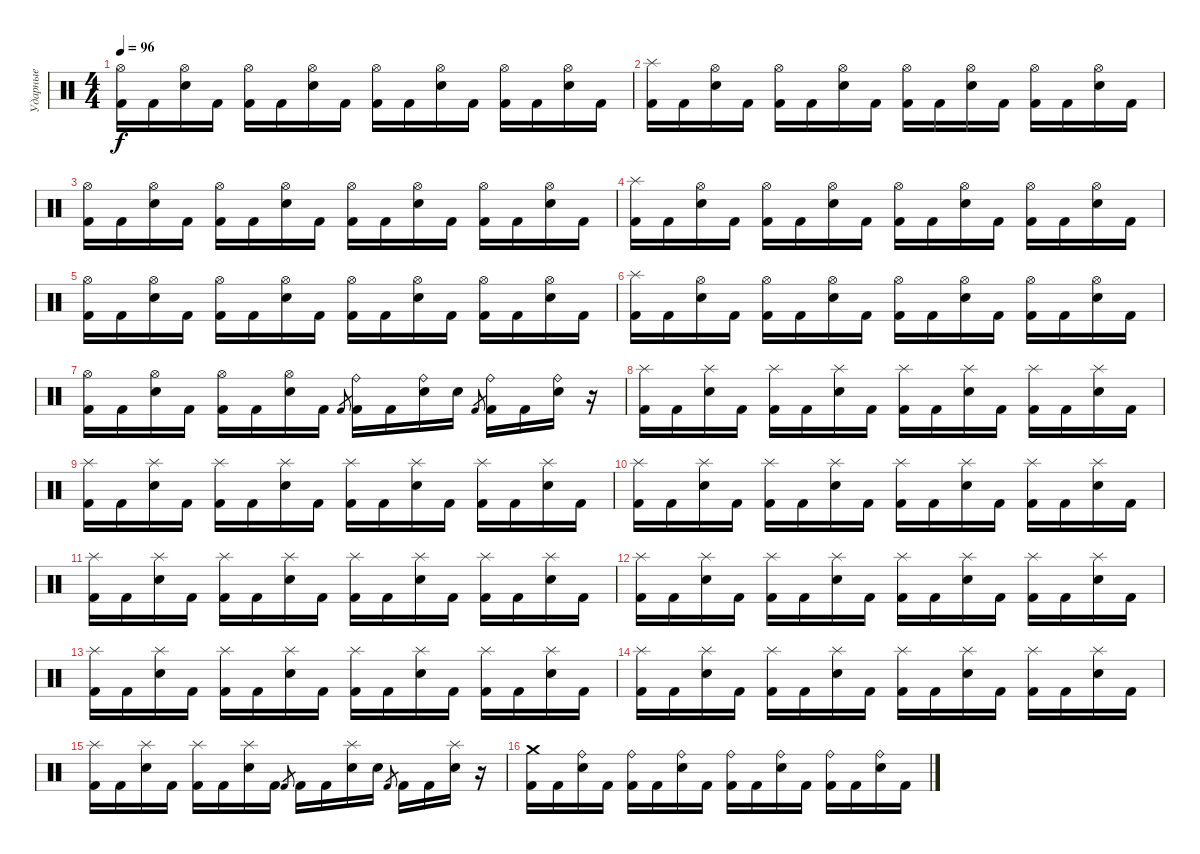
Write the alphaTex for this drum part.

\track ("Ударные" "Ударные") {instrument percussion}
\staff {score}
\articulation defaults
\ts (4 4)
\tempo 96
\clef neutral
\ks c
("Hi-Hat (open)" "Kick (hit) 2").16{dy f} "Kick (hit) 2".16 ("Hi-Hat (open)" "Electric Snare (hit)").16 "Kick (hit) 2".16 ("Hi-Hat (open)" "Kick (hit) 2").16 "Kick (hit) 2".16 ("Hi-Hat (open)" "Electric Snare (hit)").16 "Kick (hit) 2".16 ("Hi-Hat (open)" "Kick (hit) 2").16 "Kick (hit) 2".16 ("Hi-Hat (open)" "Electric Snare (hit)").16 "Kick (hit) 2".16 ("Hi-Hat (open)" "Kick (hit) 2").16 "Kick (hit) 2".16 ("Hi-Hat (open)" "Electric Snare (hit)").16 "Kick (hit) 2".16 |
("Splash (hit)" "Kick (hit) 2").16 "Kick (hit) 2".16 ("Hi-Hat (open)" "Electric Snare (hit)").16 "Kick (hit) 2".16 ("Hi-Hat (open)" "Kick (hit) 2").16 "Kick (hit) 2".16 ("Hi-Hat (open)" "Electric Snare (hit)").16 "Kick (hit) 2".16 ("Hi-Hat (open)" "Kick (hit) 2").16 "Kick (hit) 2".16 ("Hi-Hat (open)" "Electric Snare (hit)").16 "Kick (hit) 2".16 ("Hi-Hat (open)" "Kick (hit) 2").16 "Kick (hit) 2".16 ("Hi-Hat (open)" "Electric Snare (hit)").16 "Kick (hit) 2".16 |
("Hi-Hat (open)" "Kick (hit) 2").16 "Kick (hit) 2".16 ("Hi-Hat (open)" "Electric Snare (hit)").16 "Kick (hit) 2".16 ("Hi-Hat (open)" "Kick (hit) 2").16 "Kick (hit) 2".16 ("Hi-Hat (open)" "Electric Snare (hit)").16 "Kick (hit) 2".16 ("Hi-Hat (open)" "Kick (hit) 2").16 "Kick (hit) 2".16 ("Hi-Hat (open)" "Electric Snare (hit)").16 "Kick (hit) 2".16 ("Hi-Hat (open)" "Kick (hit) 2").16 "Kick (hit) 2".16 ("Hi-Hat (open)" "Electric Snare (hit)").16 "Kick (hit) 2".16 |
("Splash (hit)" "Kick (hit) 2").16 "Kick (hit) 2".16 ("Hi-Hat (open)" "Electric Snare (hit)").16 "Kick (hit) 2".16 ("Hi-Hat (open)" "Kick (hit) 2").16 "Kick (hit) 2".16 ("Hi-Hat (open)" "Electric Snare (hit)").16 "Kick (hit) 2".16 ("Hi-Hat (open)" "Kick (hit) 2").16 "Kick (hit) 2".16 ("Hi-Hat (open)" "Electric Snare (hit)").16 "Kick (hit) 2".16 ("Hi-Hat (open)" "Kick (hit) 2").16 "Kick (hit) 2".16 ("Hi-Hat (open)" "Electric Snare (hit)").16 "Kick (hit) 2".16 |
("Hi-Hat (open)" "Kick (hit) 2").16 "Kick (hit) 2".16 ("Hi-Hat (open)" "Electric Snare (hit)").16 "Kick (hit) 2".16 ("Hi-Hat (open)" "Kick (hit) 2").16 "Kick (hit) 2".16 ("Hi-Hat (open)" "Electric Snare (hit)").16 "Kick (hit) 2".16 ("Hi-Hat (open)" "Kick (hit) 2").16 "Kick (hit) 2".16 ("Hi-Hat (open)" "Electric Snare (hit)").16 "Kick (hit) 2".16 ("Hi-Hat (open)" "Kick (hit) 2").16 "Kick (hit) 2".16 ("Hi-Hat (open)" "Electric Snare (hit)").16 "Kick (hit) 2".16 |
("Splash (hit)" "Kick (hit) 2").16 "Kick (hit) 2".16 ("Hi-Hat (open)" "Electric Snare (hit)").16 "Kick (hit) 2".16 ("Hi-Hat (open)" "Kick (hit) 2").16 "Kick (hit) 2".16 ("Hi-Hat (open)" "Electric Snare (hit)").16 "Kick (hit) 2".16 ("Hi-Hat (open)" "Kick (hit) 2").16 "Kick (hit) 2".16 ("Hi-Hat (open)" "Electric Snare (hit)").16 "Kick (hit) 2".16 ("Hi-Hat (open)" "Kick (hit) 2").16 "Kick (hit) 2".16 ("Hi-Hat (open)" "Electric Snare (hit)").16 "Kick (hit) 2".16 |
("Hi-Hat (open)" "Kick (hit) 2").16 "Kick (hit) 2".16 ("Hi-Hat (open)" "Electric Snare (hit)").16 "Kick (hit) 2".16 ("Hi-Hat (open)" "Kick (hit) 2").16 "Kick (hit) 2".16 ("Hi-Hat (open)" "Electric Snare (hit)").16 "Kick (hit) 2".16 "Kick (hit) 2".8{gr} ("Ride (bell)" "Kick (hit) 2").16 "Kick (hit) 2".16 ("Ride (bell)" "Electric Snare (hit)").16 "Electric Snare (hit)".16 "Kick (hit) 2".8{gr} ("Ride (bell)" "Kick (hit) 2").16 "Kick (hit) 2".16 ("Ride (bell)" "Electric Snare (hit)").16 r.16 |
("Splash (hit)" "Kick (hit) 2").16 "Kick (hit) 2".16 ("Splash (hit)" "Electric Snare (hit)").16 "Kick (hit) 2".16 ("Splash (hit)" "Kick (hit) 2").16 "Kick (hit) 2".16 ("Splash (hit)" "Electric Snare (hit)").16 "Kick (hit) 2".16 ("Splash (hit)" "Kick (hit) 2").16 "Kick (hit) 2".16 ("Splash (hit)" "Electric Snare (hit)").16 "Kick (hit) 2".16 ("Splash (hit)" "Kick (hit) 2").16 "Kick (hit) 2".16 ("Splash (hit)" "Electric Snare (hit)").16 "Kick (hit) 2".16 |
("Splash (hit)" "Kick (hit) 2").16 "Kick (hit) 2".16 ("Splash (hit)" "Electric Snare (hit)").16 "Kick (hit) 2".16 ("Splash (hit)" "Kick (hit) 2").16 "Kick (hit) 2".16 ("Splash (hit)" "Electric Snare (hit)").16 "Kick (hit) 2".16 ("Splash (hit)" "Kick (hit) 2").16 "Kick (hit) 2".16 ("Splash (hit)" "Electric Snare (hit)").16 "Kick (hit) 2".16 ("Splash (hit)" "Kick (hit) 2").16 "Kick (hit) 2".16 ("Splash (hit)" "Electric Snare (hit)").16 "Kick (hit) 2".16 |
("Splash (hit)" "Kick (hit) 2").16 "Kick (hit) 2".16 ("Splash (hit)" "Electric Snare (hit)").16 "Kick (hit) 2".16 ("Splash (hit)" "Kick (hit) 2").16 "Kick (hit) 2".16 ("Splash (hit)" "Electric Snare (hit)").16 "Kick (hit) 2".16 ("Splash (hit)" "Kick (hit) 2").16 "Kick (hit) 2".16 ("Splash (hit)" "Electric Snare (hit)").16 "Kick (hit) 2".16 ("Splash (hit)" "Kick (hit) 2").16 "Kick (hit) 2".16 ("Splash (hit)" "Electric Snare (hit)").16 "Kick (hit) 2".16 |
("Splash (hit)" "Kick (hit) 2").16 "Kick (hit) 2".16 ("Splash (hit)" "Electric Snare (hit)").16 "Kick (hit) 2".16 ("Splash (hit)" "Kick (hit) 2").16 "Kick (hit) 2".16 ("Splash (hit)" "Electric Snare (hit)").16 "Kick (hit) 2".16 ("Splash (hit)" "Kick (hit) 2").16 "Kick (hit) 2".16 ("Splash (hit)" "Electric Snare (hit)").16 "Kick (hit) 2".16 ("Splash (hit)" "Kick (hit) 2").16 "Kick (hit) 2".16 ("Splash (hit)" "Electric Snare (hit)").16 "Kick (hit) 2".16 |
("Splash (hit)" "Kick (hit) 2").16 "Kick (hit) 2".16 ("Splash (hit)" "Electric Snare (hit)").16 "Kick (hit) 2".16 ("Splash (hit)" "Kick (hit) 2").16 "Kick (hit) 2".16 ("Splash (hit)" "Electric Snare (hit)").16 "Kick (hit) 2".16 ("Splash (hit)" "Kick (hit) 2").16 "Kick (hit) 2".16 ("Splash (hit)" "Electric Snare (hit)").16 "Kick (hit) 2".16 ("Splash (hit)" "Kick (hit) 2").16 "Kick (hit) 2".16 ("Splash (hit)" "Electric Snare (hit)").16 "Kick (hit) 2".16 |
("Splash (hit)" "Kick (hit) 2").16 "Kick (hit) 2".16 ("Splash (hit)" "Electric Snare (hit)").16 "Kick (hit) 2".16 ("Splash (hit)" "Kick (hit) 2").16 "Kick (hit) 2".16 ("Splash (hit)" "Electric Snare (hit)").16 "Kick (hit) 2".16 ("Splash (hit)" "Kick (hit) 2").16 "Kick (hit) 2".16 ("Splash (hit)" "Electric Snare (hit)").16 "Kick (hit) 2".16 ("Splash (hit)" "Kick (hit) 2").16 "Kick (hit) 2".16 ("Splash (hit)" "Electric Snare (hit)").16 "Kick (hit) 2".16 |
("Splash (hit)" "Kick (hit) 2").16 "Kick (hit) 2".16 ("Splash (hit)" "Electric Snare (hit)").16 "Kick (hit) 2".16 ("Splash (hit)" "Kick (hit) 2").16 "Kick (hit) 2".16 ("Splash (hit)" "Electric Snare (hit)").16 "Kick (hit) 2".16 ("Splash (hit)" "Kick (hit) 2").16 "Kick (hit) 2".16 ("Splash (hit)" "Electric Snare (hit)").16 "Kick (hit) 2".16 ("Splash (hit)" "Kick (hit) 2").16 "Kick (hit) 2".16 ("Splash (hit)" "Electric Snare (hit)").16 "Kick (hit) 2".16 |
("Splash (hit)" "Kick (hit) 2").16 "Kick (hit) 2".16 ("Splash (hit)" "Electric Snare (hit)").16 "Kick (hit) 2".16 ("Splash (hit)" "Kick (hit) 2").16 "Kick (hit) 2".16 ("Splash (hit)" "Electric Snare (hit)").16 "Kick (hit) 2".16 "Kick (hit) 2".8{gr} "Kick (hit) 2".16 "Kick (hit) 2".16 ("Splash (hit)" "Electric Snare (hit)").16 "Electric Snare (hit)".16 "Kick (hit) 2".8{gr} "Kick (hit) 2".16 "Kick (hit) 2".16 ("Splash (hit)" "Electric Snare (hit)").16 r.16 |
("Crash medium (hit)" "Kick (hit) 2").16 "Kick (hit) 2".16 ("Ride (bell)" "Electric Snare (hit)").16 "Kick (hit) 2".16 ("Ride (bell)" "Kick (hit) 2").16 "Kick (hit) 2".16 ("Ride (bell)" "Electric Snare (hit)").16 "Kick (hit) 2".16 ("Ride (bell)" "Kick (hit) 2").16 "Kick (hit) 2".16 ("Ride (bell)" "Electric Snare (hit)").16 "Kick (hit) 2".16 ("Ride (bell)" "Kick (hit) 2").16 "Kick (hit) 2".16 ("Ride (bell)" "Electric Snare (hit)").16 "Kick (hit) 2".16
